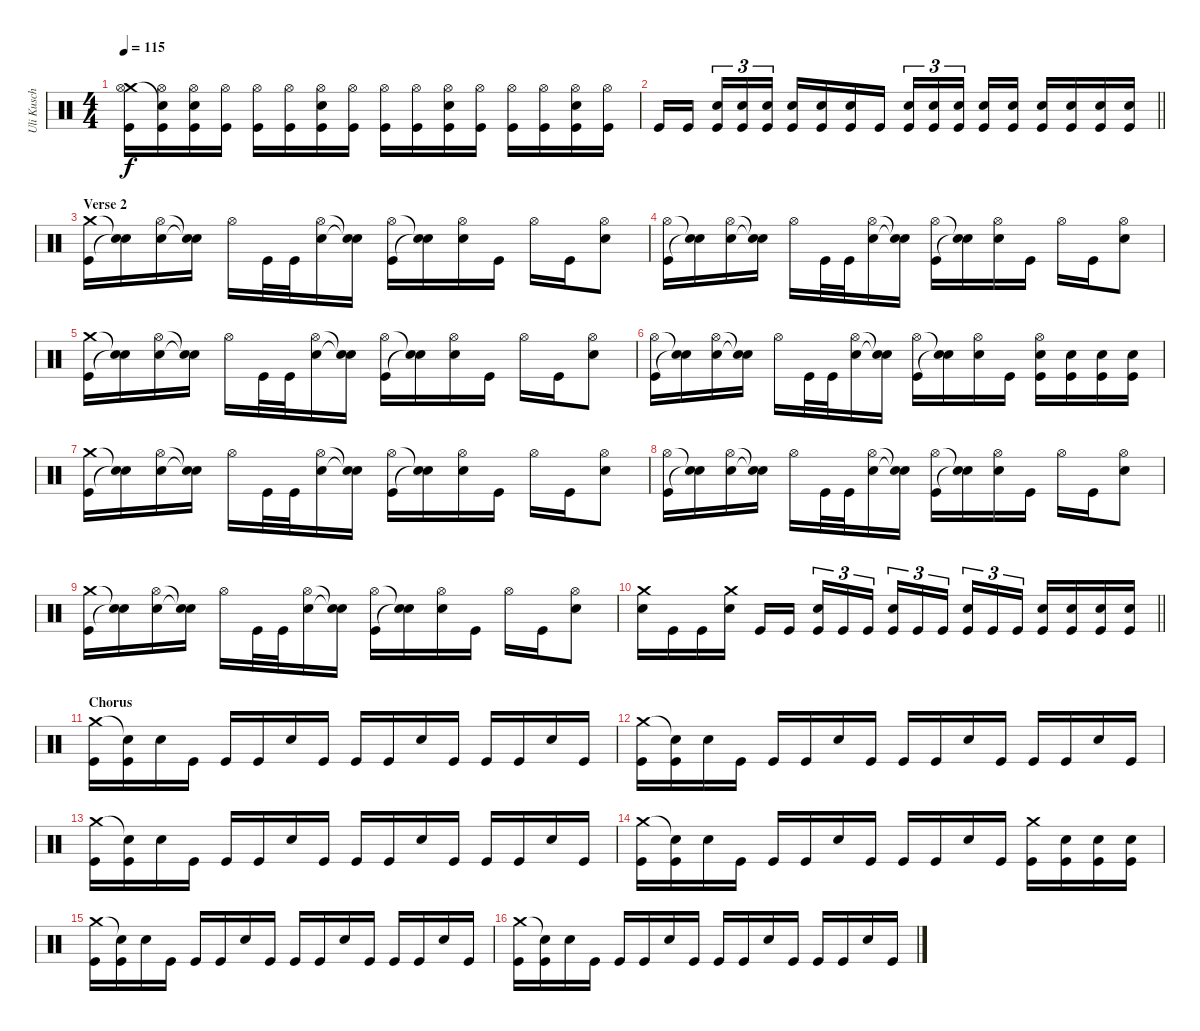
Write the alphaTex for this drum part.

\track ("Uli Kusch (Drums)" "Uli Kusch ") {instrument percussion}
\staff {score}
\articulation defaults
\ts (4 4)
\tempo 115
\clef neutral
\ks c
("Crash medium (hit)" "Hi-Hat (open)" "Kick (hit)").16{dy f} ("Snare (hit)"{t} "Hi-Hat (open)" "Kick (hit)").16 ("Hi-Hat (open)" "Snare (hit) 2" "Kick (hit)").16 ("Hi-Hat (open)" "Kick (hit)").16 ("Hi-Hat (open)" "Kick (hit)").16 ("Hi-Hat (open)" "Kick (hit)").16 ("Hi-Hat (open)" "Snare (hit) 2" "Kick (hit)").16 ("Hi-Hat (open)" "Kick (hit)").16 ("Hi-Hat (open)" "Kick (hit)").16 ("Hi-Hat (open)" "Kick (hit)").16 ("Hi-Hat (open)" "Snare (hit) 2" "Kick (hit)").16 ("Hi-Hat (open)" "Kick (hit)").16 ("Hi-Hat (open)" "Kick (hit)").16 ("Hi-Hat (open)" "Kick (hit)").16 ("Hi-Hat (open)" "Snare (hit) 2" "Kick (hit)").16 ("Hi-Hat (open)" "Kick (hit)").16 |
\barLineRight lightlight "Kick (hit)".16 "Kick (hit)".16{beam splitsecondary}
("Snare (hit) 2" "Kick (hit)").16{tu (3 2)} ("Snare (hit) 2" "Kick (hit)").16{tu (3 2)} ("Snare (hit) 2" "Kick (hit)").16{tu (3 2)} ("Snare (hit) 2" "Kick (hit)").16 ("Snare (hit) 2" "Kick (hit)").16 ("Snare (hit) 2" "Kick (hit)").16 "Kick (hit)".16 ("Snare (hit) 2" "Kick (hit)").16{tu (3 2)} ("Snare (hit) 2" "Kick (hit)").16{tu (3 2)} ("Snare (hit) 2" "Kick (hit)").16{tu (3 2) beam splitsecondary} ("Snare (hit) 2" "Kick (hit)").16 ("Snare (hit) 2" "Kick (hit)").16 ("Snare (hit) 2" "Kick (hit)").16 ("Snare (hit) 2" "Kick (hit)").16 ("Snare (hit) 2" "Kick (hit)").16 ("Snare (hit) 2" "Kick (hit)").16 |
\section ("" "Verse 2")
("Crash medium (hit)" "Kick (hit)").16 ("Snare (hit)"{t} "Snare (hit)"{t}).16 ("Hi-Hat (open)" "Snare (hit) 2").16 ("Snare (hit)"{t} "Snare (hit)"{t}).16 "Hi-Hat (open)".16 "Kick (hit)".32 "Kick (hit)".32 ("Hi-Hat (open)" "Snare (hit) 2").16 ("Snare (hit)"{t} "Snare (hit)"{t}).16 ("Hi-Hat (open)" "Kick (hit)").16 ("Snare (hit)"{t} "Snare (hit)"{t}).16 ("Hi-Hat (open)" "Snare (hit) 2").16 "Kick (hit)".16 "Hi-Hat (open)".16 "Kick (hit)".16 ("Hi-Hat (open)" "Snare (hit) 2").8 |
("Hi-Hat (open)" "Kick (hit)").16 ("Snare (hit)"{t} "Snare (hit)"{t}).16 ("Hi-Hat (open)" "Snare (hit) 2").16 ("Snare (hit)"{t} "Snare (hit)"{t}).16 "Hi-Hat (open)".16 "Kick (hit)".32 "Kick (hit)".32 ("Hi-Hat (open)" "Snare (hit) 2").16 ("Snare (hit)"{t} "Snare (hit)"{t}).16 ("Hi-Hat (open)" "Kick (hit)").16 ("Snare (hit)"{t} "Snare (hit)"{t}).16 ("Hi-Hat (open)" "Snare (hit) 2").16 "Kick (hit)".16 "Hi-Hat (open)".16 "Kick (hit)".16 ("Hi-Hat (open)" "Snare (hit) 2").8 |
("Crash medium (hit)" "Kick (hit)").16 ("Snare (hit)"{t} "Snare (hit)"{t}).16 ("Hi-Hat (open)" "Snare (hit) 2").16 ("Snare (hit)"{t} "Snare (hit)"{t}).16 "Hi-Hat (open)".16 "Kick (hit)".32 "Kick (hit)".32 ("Hi-Hat (open)" "Snare (hit) 2").16 ("Snare (hit)"{t} "Snare (hit)"{t}).16 ("Hi-Hat (open)" "Kick (hit)").16 ("Snare (hit)"{t} "Snare (hit)"{t}).16 ("Hi-Hat (open)" "Snare (hit) 2").16 "Kick (hit)".16 "Hi-Hat (open)".16 "Kick (hit)".16 ("Hi-Hat (open)" "Snare (hit) 2").8 |
("Hi-Hat (open)" "Kick (hit)").16 ("Snare (hit)"{t} "Snare (hit)"{t}).16 ("Hi-Hat (open)" "Snare (hit) 2").16 ("Snare (hit)"{t} "Snare (hit)"{t}).16 "Hi-Hat (open)".16 "Kick (hit)".32 "Kick (hit)".32 ("Hi-Hat (open)" "Snare (hit) 2").16 ("Snare (hit)"{t} "Snare (hit)"{t}).16 ("Hi-Hat (open)" "Kick (hit)").16 ("Snare (hit)"{t} "Snare (hit)"{t}).16 ("Hi-Hat (open)" "Snare (hit) 2").16 "Kick (hit)".16 ("Hi-Hat (open)" "Snare (hit) 2" "Kick (hit)").16 ("Snare (hit) 2" "Kick (hit)").16 ("Snare (hit) 2" "Kick (hit)").16 ("Snare (hit) 2" "Kick (hit)").16 |
("Crash medium (hit)" "Kick (hit)").16 ("Snare (hit)"{t} "Snare (hit)"{t}).16 ("Hi-Hat (open)" "Snare (hit) 2").16 ("Snare (hit)"{t} "Snare (hit)"{t}).16 "Hi-Hat (open)".16 "Kick (hit)".32 "Kick (hit)".32 ("Hi-Hat (open)" "Snare (hit) 2").16 ("Snare (hit)"{t} "Snare (hit)"{t}).16 ("Hi-Hat (open)" "Kick (hit)").16 ("Snare (hit)"{t} "Snare (hit)"{t}).16 ("Hi-Hat (open)" "Snare (hit) 2").16 "Kick (hit)".16 "Hi-Hat (open)".16 "Kick (hit)".16 ("Hi-Hat (open)" "Snare (hit) 2").8 |
("Hi-Hat (open)" "Kick (hit)").16 ("Snare (hit)"{t} "Snare (hit)"{t}).16 ("Hi-Hat (open)" "Snare (hit) 2").16 ("Snare (hit)"{t} "Snare (hit)"{t}).16 "Hi-Hat (open)".16 "Kick (hit)".32 "Kick (hit)".32 ("Hi-Hat (open)" "Snare (hit) 2").16 ("Snare (hit)"{t} "Snare (hit)"{t}).16 ("Hi-Hat (open)" "Kick (hit)").16 ("Snare (hit)"{t} "Snare (hit)"{t}).16 ("Hi-Hat (open)" "Snare (hit) 2").16 "Kick (hit)".16 "Hi-Hat (open)".16 "Kick (hit)".16 ("Hi-Hat (open)" "Snare (hit) 2").8 |
("Crash medium (hit)" "Kick (hit)").16 ("Snare (hit)"{t} "Snare (hit)"{t}).16 ("Hi-Hat (open)" "Snare (hit) 2").16 ("Snare (hit)"{t} "Snare (hit)"{t}).16 "Hi-Hat (open)".16 "Kick (hit)".32 "Kick (hit)".32 ("Hi-Hat (open)" "Snare (hit) 2").16 ("Snare (hit)"{t} "Snare (hit)"{t}).16 ("Hi-Hat (open)" "Kick (hit)").16 ("Snare (hit)"{t} "Snare (hit)"{t}).16 ("Hi-Hat (open)" "Snare (hit) 2").16 "Kick (hit)".16 "Hi-Hat (open)".16 "Kick (hit)".16 ("Hi-Hat (open)" "Snare (hit) 2").8 |
\barLineRight lightlight
("Crash medium (hit)" "Snare (hit) 2").16 "Kick (hit)".16 "Kick (hit)".16 ("Crash medium (hit)" "Snare (hit) 2").16 "Kick (hit)".16 "Kick (hit)".16{beam splitsecondary} ("Snare (hit) 2" "Kick (hit)").16{tu (3 2)} "Kick (hit)".16{tu (3 2)} "Kick (hit)".16{tu (3 2)} ("Snare (hit) 2" "Kick (hit)").16{tu (3 2)} "Kick (hit)".16{tu (3 2)} "Kick (hit)".16{tu (3 2) beam splitsecondary} ("Snare (hit) 2" "Kick (hit)").16{tu (3 2)} "Kick (hit)".16{tu (3 2)} "Kick (hit)".16{tu (3 2)} ("Snare (hit) 2" "Kick (hit)").16 ("Snare (hit) 2" "Kick (hit)").16 ("Snare (hit) 2" "Kick (hit)").16 ("Snare (hit) 2" "Kick (hit)").16 |
\section ("" "Chorus")
("Crash medium (hit)" "Kick (hit)").16 ("Snare (hit)"{t} "Kick (hit)").16 "Snare (hit) 2".16 "Kick (hit)".16 "Kick (hit)".16 "Kick (hit)".16 "Snare (hit) 2".16 "Kick (hit)".16 "Kick (hit)".16 "Kick (hit)".16 "Snare (hit) 2".16 "Kick (hit)".16 "Kick (hit)".16 "Kick (hit)".16 "Snare (hit) 2".16 "Kick (hit)".16 |
("Crash medium (hit)" "Kick (hit)").16 ("Snare (hit)"{t} "Kick (hit)").16 "Snare (hit) 2".16 "Kick (hit)".16 "Kick (hit)".16 "Kick (hit)".16 "Snare (hit) 2".16 "Kick (hit)".16 "Kick (hit)".16 "Kick (hit)".16 "Snare (hit) 2".16 "Kick (hit)".16 "Kick (hit)".16 "Kick (hit)".16 "Snare (hit) 2".16 "Kick (hit)".16 |
("Crash medium (hit)" "Kick (hit)").16 ("Snare (hit)"{t} "Kick (hit)").16 "Snare (hit) 2".16 "Kick (hit)".16 "Kick (hit)".16 "Kick (hit)".16 "Snare (hit) 2".16 "Kick (hit)".16 "Kick (hit)".16 "Kick (hit)".16 "Snare (hit) 2".16 "Kick (hit)".16 "Kick (hit)".16 "Kick (hit)".16 "Snare (hit) 2".16 "Kick (hit)".16 |
("Crash medium (hit)" "Kick (hit)").16 ("Snare (hit)"{t} "Kick (hit)").16 "Snare (hit) 2".16 "Kick (hit)".16 "Kick (hit)".16 "Kick (hit)".16 "Snare (hit) 2".16 "Kick (hit)".16 "Kick (hit)".16 "Kick (hit)".16 "Snare (hit) 2".16 "Kick (hit)".16 ("Crash medium (hit)" "Kick (hit)").16 ("Snare (hit) 2" "Kick (hit)").16 ("Snare (hit) 2" "Kick (hit)").16 ("Snare (hit) 2" "Kick (hit)").16 |
("Crash medium (hit)" "Kick (hit)").16 ("Snare (hit)"{t} "Kick (hit)").16 "Snare (hit) 2".16 "Kick (hit)".16 "Kick (hit)".16 "Kick (hit)".16 "Snare (hit) 2".16 "Kick (hit)".16 "Kick (hit)".16 "Kick (hit)".16 "Snare (hit) 2".16 "Kick (hit)".16 "Kick (hit)".16 "Kick (hit)".16 "Snare (hit) 2".16 "Kick (hit)".16 |
("Crash medium (hit)" "Kick (hit)").16 ("Snare (hit)"{t} "Kick (hit)").16 "Snare (hit) 2".16 "Kick (hit)".16 "Kick (hit)".16 "Kick (hit)".16 "Snare (hit) 2".16 "Kick (hit)".16 "Kick (hit)".16 "Kick (hit)".16 "Snare (hit) 2".16 "Kick (hit)".16 "Kick (hit)".16 "Kick (hit)".16 "Snare (hit) 2".16 "Kick (hit)".16
